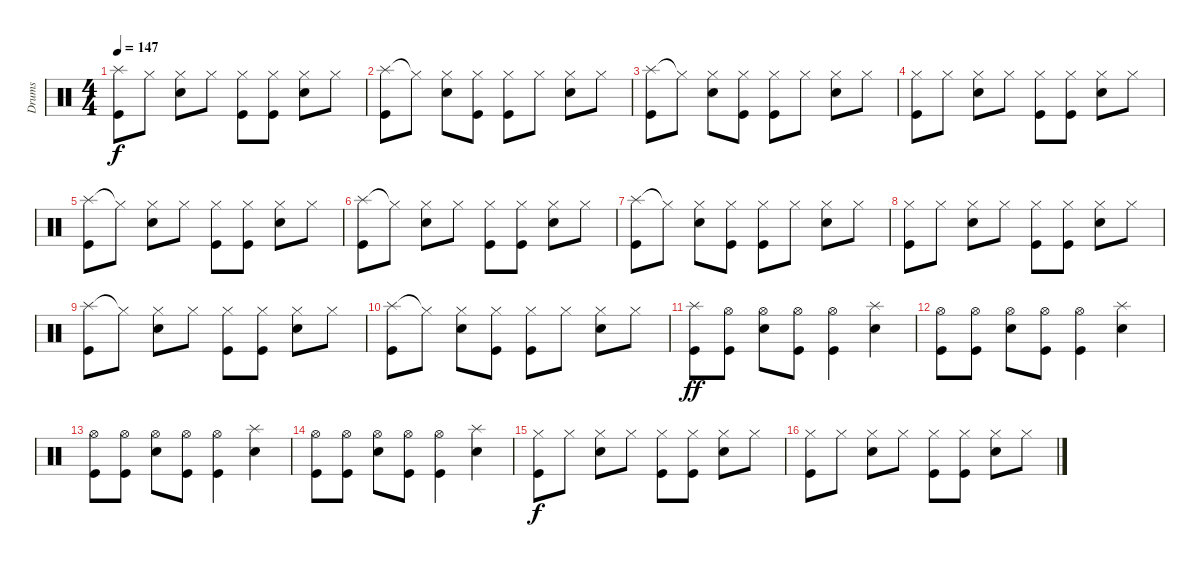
\track ("Drums" "Drums") {instrument percussion}
\staff {score}
\articulation defaults
\ts (4 4)
\tempo 147
\clef neutral
\ks c
("Splash (hit)" "Kick (hit)").8{dy f} "Hi-Hat (closed)".8 ("Hi-Hat (closed)" "Snare (hit) 2").8 "Hi-Hat (closed)".8 ("Hi-Hat (closed)" "Kick (hit)").8 ("Hi-Hat (closed)" "Kick (hit)").8 ("Hi-Hat (closed)" "Snare (hit) 2").8 "Hi-Hat (closed)".8 |
("Splash (hit)" "Kick (hit)").8 "Hi-Hat (closed)"{t}.8 ("Hi-Hat (closed)" "Snare (hit) 2").8 ("Hi-Hat (closed)" "Kick (hit)").8 ("Hi-Hat (closed)" "Kick (hit)").8 "Hi-Hat (closed)".8 ("Hi-Hat (closed)" "Snare (hit) 2").8 "Hi-Hat (closed)".8 |
("Splash (hit)" "Kick (hit)").8 "Hi-Hat (closed)"{t}.8 ("Hi-Hat (closed)" "Snare (hit) 2").8 ("Hi-Hat (closed)" "Kick (hit)").8 ("Hi-Hat (closed)" "Kick (hit)").8 "Hi-Hat (closed)".8 ("Hi-Hat (closed)" "Snare (hit) 2").8 "Hi-Hat (closed)".8 |
("Hi-Hat (closed)" "Kick (hit)").8 "Hi-Hat (closed)".8 ("Hi-Hat (closed)" "Snare (hit) 2").8 "Hi-Hat (closed)".8 ("Hi-Hat (closed)" "Kick (hit)").8 ("Hi-Hat (closed)" "Kick (hit)").8 ("Hi-Hat (closed)" "Snare (hit) 2").8 "Hi-Hat (closed)".8 |
("Splash (hit)" "Kick (hit)").8 "Hi-Hat (closed)"{t}.8 ("Hi-Hat (closed)" "Snare (hit) 2").8 "Hi-Hat (closed)".8 ("Hi-Hat (closed)" "Kick (hit)").8 ("Hi-Hat (closed)" "Kick (hit)").8 ("Hi-Hat (closed)" "Snare (hit) 2").8 "Hi-Hat (closed)".8 |
("Splash (hit)" "Kick (hit)").8 "Hi-Hat (closed)"{t}.8 ("Hi-Hat (closed)" "Snare (hit) 2").8 "Hi-Hat (closed)".8 ("Hi-Hat (closed)" "Kick (hit)").8 ("Hi-Hat (closed)" "Kick (hit)").8 ("Hi-Hat (closed)" "Snare (hit) 2").8 "Hi-Hat (closed)".8 |
("Splash (hit)" "Kick (hit)").8 "Hi-Hat (closed)"{t}.8 ("Hi-Hat (closed)" "Snare (hit) 2").8 ("Hi-Hat (closed)" "Kick (hit)").8 ("Hi-Hat (closed)" "Kick (hit)").8 "Hi-Hat (closed)".8 ("Hi-Hat (closed)" "Snare (hit) 2").8 "Hi-Hat (closed)".8 |
("Hi-Hat (closed)" "Kick (hit)").8 "Hi-Hat (closed)".8 ("Hi-Hat (closed)" "Snare (hit) 2").8 "Hi-Hat (closed)".8 ("Hi-Hat (closed)" "Kick (hit)").8 ("Hi-Hat (closed)" "Kick (hit)").8 ("Hi-Hat (closed)" "Snare (hit) 2").8 "Hi-Hat (closed)".8 |
("Splash (hit)" "Kick (hit)").8 "Hi-Hat (closed)"{t}.8 ("Hi-Hat (closed)" "Snare (hit) 2").8 "Hi-Hat (closed)".8 ("Hi-Hat (closed)" "Kick (hit)").8 ("Hi-Hat (closed)" "Kick (hit)").8 ("Hi-Hat (closed)" "Snare (hit) 2").8 "Hi-Hat (closed)".8 |
("Splash (hit)" "Kick (hit)").8 "Hi-Hat (closed)"{t}.8 ("Hi-Hat (closed)" "Snare (hit) 2").8 ("Hi-Hat (closed)" "Kick (hit)").8 ("Hi-Hat (closed)" "Kick (hit)").8 "Hi-Hat (closed)".8 ("Hi-Hat (closed)" "Snare (hit) 2").8 "Hi-Hat (closed)".8 |
("Splash (hit)" "Kick (hit)").8{dy ff} ("Hi-Hat (open)" "Kick (hit)").8 ("Hi-Hat (open)" "Snare (hit) 2").8 ("Hi-Hat (open)" "Kick (hit)").8 ("Hi-Hat (open)" "Kick (hit)").4 ("Splash (hit)" "Snare (hit) 2").4 |
("Hi-Hat (open)" "Kick (hit)").8 ("Hi-Hat (open)" "Kick (hit)").8 ("Hi-Hat (open)" "Snare (hit) 2").8 ("Hi-Hat (open)" "Kick (hit)").8 ("Hi-Hat (open)" "Kick (hit)").4 ("Splash (hit)" "Snare (hit) 2").4 |
("Hi-Hat (open)" "Kick (hit)").8 ("Hi-Hat (open)" "Kick (hit)").8 ("Hi-Hat (open)" "Snare (hit) 2").8 ("Hi-Hat (open)" "Kick (hit)").8 ("Hi-Hat (open)" "Kick (hit)").4 ("Splash (hit)" "Snare (hit) 2").4 |
("Hi-Hat (open)" "Kick (hit)").8 ("Hi-Hat (open)" "Kick (hit)").8 ("Hi-Hat (open)" "Snare (hit) 2").8 ("Hi-Hat (open)" "Kick (hit)").8 ("Hi-Hat (open)" "Kick (hit)").4 ("Splash (hit)" "Snare (hit) 2").4 |
("Hi-Hat (closed)" "Kick (hit)").8{dy f} "Hi-Hat (closed)".8 ("Hi-Hat (closed)" "Snare (hit) 2").8 "Hi-Hat (closed)".8 ("Hi-Hat (closed)" "Kick (hit)").8 ("Hi-Hat (closed)" "Kick (hit)").8 ("Hi-Hat (closed)" "Snare (hit) 2").8 "Hi-Hat (closed)".8 |
("Hi-Hat (closed)" "Kick (hit)").8 "Hi-Hat (closed)".8 ("Hi-Hat (closed)" "Snare (hit) 2").8 "Hi-Hat (closed)".8 ("Hi-Hat (closed)" "Kick (hit)").8 ("Hi-Hat (closed)" "Kick (hit)").8 ("Hi-Hat (closed)" "Snare (hit) 2").8 "Hi-Hat (closed)".8
